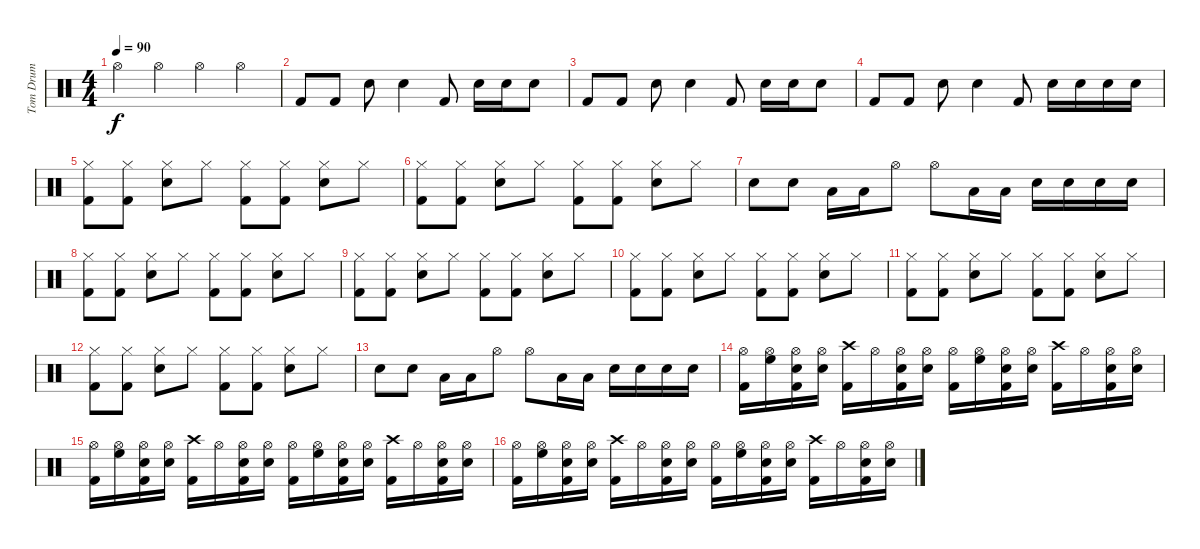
\track ("Tom Drum" "Tom Drum") {instrument percussion}
\staff {score}
\articulation defaults
\ts (4 4)
\tempo 90
\clef neutral
\ks c "Hi-Hat (open)".4{dy f} "Hi-Hat (open)".4 "Hi-Hat (open)".4 "Hi-Hat (open)".4
|
"Kick (hit) 2".8 "Kick (hit) 2".8 "Electric Snare (hit)".8 "Electric Snare (hit)".4 "Kick (hit) 2".8 "Electric Snare (hit)".16 "Electric Snare (hit)".16 "Electric Snare (hit)".8 |
"Kick (hit) 2".8 "Kick (hit) 2".8 "Electric Snare (hit)".8 "Electric Snare (hit)".4 "Kick (hit) 2".8 "Electric Snare (hit)".16 "Electric Snare (hit)".16 "Electric Snare (hit)".8 |
"Kick (hit) 2".8 "Kick (hit) 2".8 "Electric Snare (hit)".8 "Electric Snare (hit)".4 "Kick (hit) 2".8 "Electric Snare (hit)".16 "Electric Snare (hit)".16 "Electric Snare (hit)".16 "Electric Snare (hit)".16 |
("Hi-Hat (closed)" "Kick (hit) 2").8 ("Hi-Hat (closed)" "Kick (hit) 2").8 ("Hi-Hat (closed)" "Electric Snare (hit)").8 "Hi-Hat (closed)".8 ("Hi-Hat (closed)" "Kick (hit) 2").8 ("Hi-Hat (closed)" "Kick (hit) 2").8 ("Hi-Hat (closed)" "Electric Snare (hit)").8 "Hi-Hat (closed)".8 |
("Hi-Hat (closed)" "Kick (hit) 2").8 ("Hi-Hat (closed)" "Kick (hit) 2").8 ("Hi-Hat (closed)" "Electric Snare (hit)").8 "Hi-Hat (closed)".8 ("Hi-Hat (closed)" "Kick (hit) 2").8 ("Hi-Hat (closed)" "Kick (hit) 2").8 ("Hi-Hat (closed)" "Electric Snare (hit)").8 "Hi-Hat (closed)".8 |
"Electric Snare (hit)".8 "Electric Snare (hit)".8 "Low Tom (hit)".16 "Low Tom (hit)".16 "Hi-Hat (open)".8 "Hi-Hat (open)".8 "Low Tom (hit)".16 "Low Tom (hit)".16 "Electric Snare (hit)".16 "Electric Snare (hit)".16 "Electric Snare (hit)".16 "Electric Snare (hit)".16 |
("Hi-Hat (closed)" "Kick (hit) 2").8 ("Hi-Hat (closed)" "Kick (hit) 2").8 ("Hi-Hat (closed)" "Electric Snare (hit)").8 "Hi-Hat (closed)".8 ("Hi-Hat (closed)" "Kick (hit) 2").8 ("Hi-Hat (closed)" "Kick (hit) 2").8 ("Hi-Hat (closed)" "Electric Snare (hit)").8 "Hi-Hat (closed)".8 |
("Hi-Hat (closed)" "Kick (hit) 2").8 ("Hi-Hat (closed)" "Kick (hit) 2").8 ("Hi-Hat (closed)" "Electric Snare (hit)").8 "Hi-Hat (closed)".8 ("Hi-Hat (closed)" "Kick (hit) 2").8 ("Hi-Hat (closed)" "Kick (hit) 2").8 ("Hi-Hat (closed)" "Electric Snare (hit)").8 "Hi-Hat (closed)".8 |
("Hi-Hat (closed)" "Kick (hit) 2").8 ("Hi-Hat (closed)" "Kick (hit) 2").8 ("Hi-Hat (closed)" "Electric Snare (hit)").8 "Hi-Hat (closed)".8 ("Hi-Hat (closed)" "Kick (hit) 2").8 ("Hi-Hat (closed)" "Kick (hit) 2").8 ("Hi-Hat (closed)" "Electric Snare (hit)").8 "Hi-Hat (closed)".8 |
("Hi-Hat (closed)" "Kick (hit) 2").8 ("Hi-Hat (closed)" "Kick (hit) 2").8 ("Hi-Hat (closed)" "Electric Snare (hit)").8 "Hi-Hat (closed)".8 ("Hi-Hat (closed)" "Kick (hit) 2").8 ("Hi-Hat (closed)" "Kick (hit) 2").8 ("Hi-Hat (closed)" "Electric Snare (hit)").8 "Hi-Hat (closed)".8 |
("Hi-Hat (closed)" "Kick (hit) 2").8 ("Hi-Hat (closed)" "Kick (hit) 2").8 ("Hi-Hat (closed)" "Electric Snare (hit)").8 "Hi-Hat (closed)".8 ("Hi-Hat (closed)" "Kick (hit) 2").8 ("Hi-Hat (closed)" "Kick (hit) 2").8 ("Hi-Hat (closed)" "Electric Snare (hit)").8 "Hi-Hat (closed)".8 |
"Electric Snare (hit)".8 "Electric Snare (hit)".8 "Low Tom (hit)".16 "Low Tom (hit)".16 "Hi-Hat (open)".8 "Hi-Hat (open)".8 "Low Tom (hit)".16 "Low Tom (hit)".16 "Electric Snare (hit)".16 "Electric Snare (hit)".16 "Electric Snare (hit)".16 "Electric Snare (hit)".16 |
("Hi-Hat (open)" "Kick (hit) 2").16 ("Hi-Hat (open)" "High Floor Tom (hit)").16 ("Hi-Hat (open)" "Electric Snare (hit)" "Kick (hit) 2").16 ("Hi-Hat (open)" "Electric Snare (hit)").16 ("Crash high (hit)" "Kick (hit) 2").16 "Hi-Hat (open)".16 ("Hi-Hat (open)" "Electric Snare (hit)" "Kick (hit) 2").16 ("Hi-Hat (open)" "Electric Snare (hit)").16 ("Hi-Hat (open)" "Kick (hit) 2").16 ("Hi-Hat (open)" "High Floor Tom (hit)").16 ("Hi-Hat (open)" "Electric Snare (hit)" "Kick (hit) 2").16 ("Hi-Hat (open)" "Electric Snare (hit)").16 ("Crash high (hit)" "Kick (hit) 2").16 "Hi-Hat (open)".16 ("Hi-Hat (open)" "Electric Snare (hit)" "Kick (hit) 2").16 ("Hi-Hat (open)" "Electric Snare (hit)").16 |
("Hi-Hat (open)" "Kick (hit) 2").16 ("Hi-Hat (open)" "High Floor Tom (hit)").16 ("Hi-Hat (open)" "Electric Snare (hit)" "Kick (hit) 2").16 ("Hi-Hat (open)" "Electric Snare (hit)").16 ("Crash high (hit)" "Kick (hit) 2").16 "Hi-Hat (open)".16 ("Hi-Hat (open)" "Electric Snare (hit)" "Kick (hit) 2").16 ("Hi-Hat (open)" "Electric Snare (hit)").16 ("Hi-Hat (open)" "Kick (hit) 2").16 ("Hi-Hat (open)" "High Floor Tom (hit)").16 ("Hi-Hat (open)" "Electric Snare (hit)" "Kick (hit) 2").16 ("Hi-Hat (open)" "Electric Snare (hit)").16 ("Crash high (hit)" "Kick (hit) 2").16 "Hi-Hat (open)".16 ("Hi-Hat (open)" "Electric Snare (hit)" "Kick (hit) 2").16 ("Hi-Hat (open)" "Electric Snare (hit)").16 |
("Hi-Hat (open)" "Kick (hit) 2").16 ("Hi-Hat (open)" "High Floor Tom (hit)").16 ("Hi-Hat (open)" "Electric Snare (hit)" "Kick (hit) 2").16 ("Hi-Hat (open)" "Electric Snare (hit)").16 ("Crash high (hit)" "Kick (hit) 2").16 "Hi-Hat (open)".16 ("Hi-Hat (open)" "Electric Snare (hit)" "Kick (hit) 2").16 ("Hi-Hat (open)" "Electric Snare (hit)").16 ("Hi-Hat (open)" "Kick (hit) 2").16 ("Hi-Hat (open)" "High Floor Tom (hit)").16 ("Hi-Hat (open)" "Electric Snare (hit)" "Kick (hit) 2").16 ("Hi-Hat (open)" "Electric Snare (hit)").16 ("Crash high (hit)" "Kick (hit) 2").16 "Hi-Hat (open)".16 ("Hi-Hat (open)" "Electric Snare (hit)" "Kick (hit) 2").16 ("Hi-Hat (open)" "Electric Snare (hit)").16
